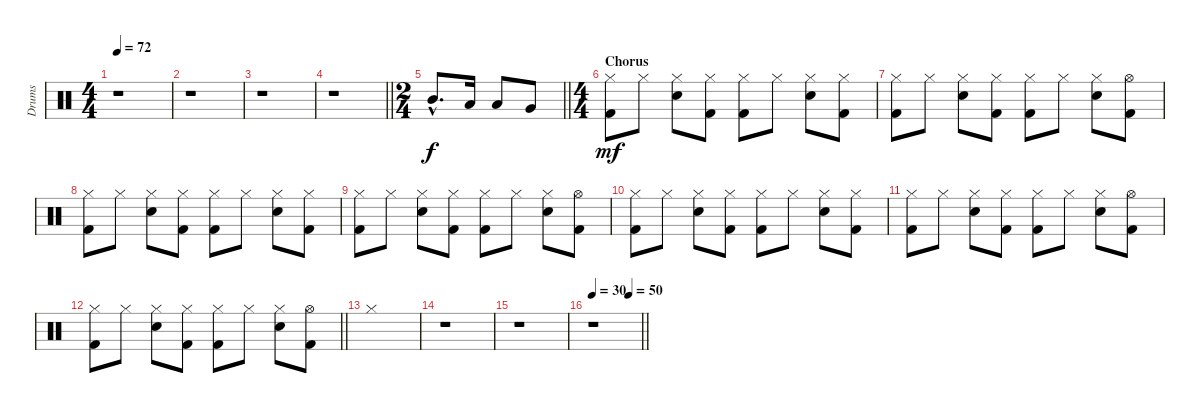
\track ("Drums" "Drums") {instrument percussion}
\staff {score}
\articulation defaults
\ts (4 4)
\tempo 72
\clef neutral
\ks c
r.1{dy f} |
r.1 |
r.1 |
\barLineRight lightlight
r.1 |
\ts (2 4)
\barLineRight lightlight "Mid Tom (hit)"{hac}.8{d} "Low Tom (hit)".16 "Low Tom (hit)".8 "Very Low Tom (hit)".8
|
\ts (4 4)
\section ("" "Chorus")
("Hi-Hat (closed)" "Kick (hit) 2").8{dy mf} "Hi-Hat (closed)".8 ("Hi-Hat (closed)" "Snare (hit) 2").8 ("Hi-Hat (closed)" "Kick (hit) 2").8 ("Hi-Hat (closed)" "Kick (hit) 2").8 "Hi-Hat (closed)".8 ("Hi-Hat (closed)" "Snare (hit) 2").8 ("Hi-Hat (closed)" "Kick (hit) 2").8 |
("Hi-Hat (closed)" "Kick (hit) 2").8 "Hi-Hat (closed)".8 ("Hi-Hat (closed)" "Snare (hit) 2").8 ("Hi-Hat (closed)" "Kick (hit) 2").8 ("Hi-Hat (closed)" "Kick (hit) 2").8 "Hi-Hat (closed)".8 ("Hi-Hat (closed)" "Snare (hit) 2").8 ("Hi-Hat (open)" "Kick (hit) 2").8 |
("Hi-Hat (closed)" "Kick (hit) 2").8 "Hi-Hat (closed)".8 ("Hi-Hat (closed)" "Snare (hit) 2").8 ("Hi-Hat (closed)" "Kick (hit) 2").8 ("Hi-Hat (closed)" "Kick (hit) 2").8 "Hi-Hat (closed)".8 ("Hi-Hat (closed)" "Snare (hit) 2").8 ("Hi-Hat (closed)" "Kick (hit) 2").8 |
("Hi-Hat (closed)" "Kick (hit) 2").8 "Hi-Hat (closed)".8 ("Hi-Hat (closed)" "Snare (hit) 2").8 ("Hi-Hat (closed)" "Kick (hit) 2").8 ("Hi-Hat (closed)" "Kick (hit) 2").8 "Hi-Hat (closed)".8 ("Hi-Hat (closed)" "Snare (hit) 2").8 ("Hi-Hat (open)" "Kick (hit) 2").8 |
("Hi-Hat (closed)" "Kick (hit) 2").8 "Hi-Hat (closed)".8 ("Hi-Hat (closed)" "Snare (hit) 2").8 ("Hi-Hat (closed)" "Kick (hit) 2").8 ("Hi-Hat (closed)" "Kick (hit) 2").8 "Hi-Hat (closed)".8 ("Hi-Hat (closed)" "Snare (hit) 2").8 ("Hi-Hat (closed)" "Kick (hit) 2").8 |
("Hi-Hat (closed)" "Kick (hit) 2").8 "Hi-Hat (closed)".8 ("Hi-Hat (closed)" "Snare (hit) 2").8 ("Hi-Hat (closed)" "Kick (hit) 2").8 ("Hi-Hat (closed)" "Kick (hit) 2").8 "Hi-Hat (closed)".8 ("Hi-Hat (closed)" "Snare (hit) 2").8 ("Hi-Hat (open)" "Kick (hit) 2").8 |
\barLineRight lightlight
("Hi-Hat (closed)" "Kick (hit) 2").8 "Hi-Hat (closed)".8 ("Hi-Hat (closed)" "Snare (hit) 2").8 ("Hi-Hat (closed)" "Kick (hit) 2").8 ("Hi-Hat (closed)" "Kick (hit) 2").8 "Hi-Hat (closed)".8 ("Hi-Hat (closed)" "Snare (hit) 2").8 ("Hi-Hat (open)" "Kick (hit) 2").8 |
"Hi-Hat (closed)".1 |
r.1 |
r.1 |
\tempo 30
\tempo (50 0.75)
\barLineRight lightlight
r.1
